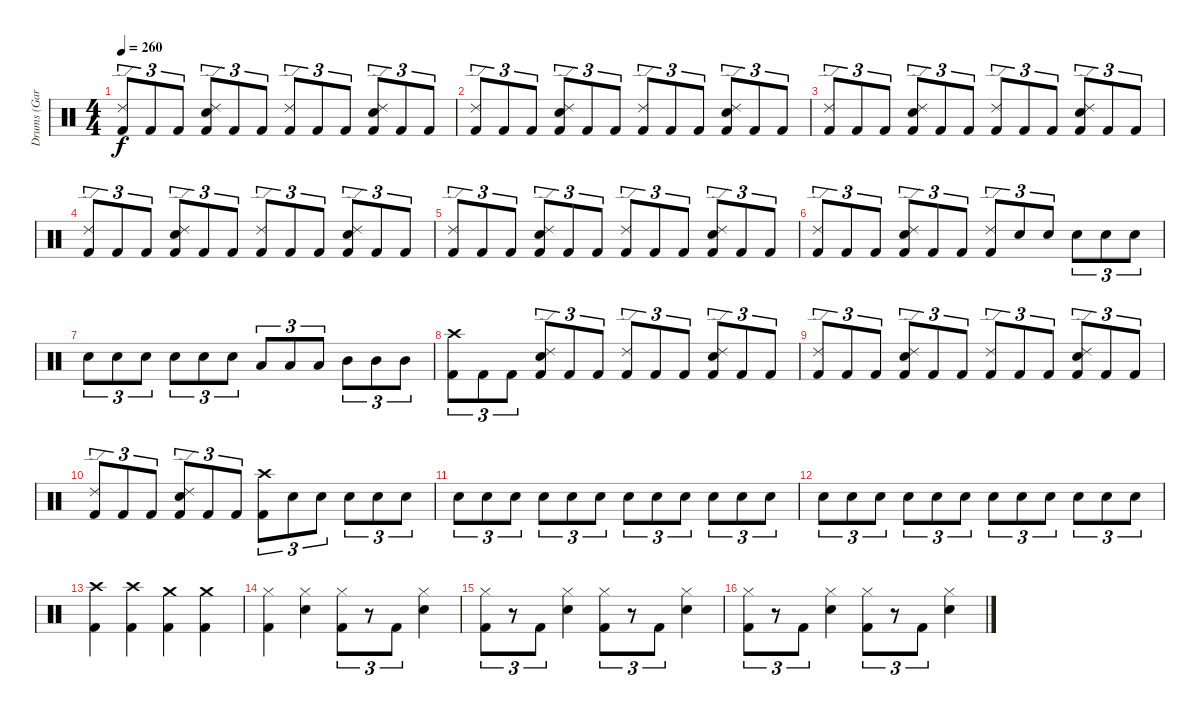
\track ("Drums (Gar Samuelson)" "Drums (Gar") {instrument percussion}
\staff {score}
\articulation defaults
\ts (4 4)
\tempo 260
\clef neutral
\ks c
("Ride (edge) 2" "Kick (hit) 2").8{tu (3 2) dy f} "Kick (hit) 2".8{tu (3 2)} "Kick (hit) 2".8{tu (3 2)} ("Ride (edge) 2" "Snare (hit) 2" "Kick (hit) 2").8{tu (3 2)} "Kick (hit) 2".8{tu (3 2)} "Kick (hit) 2".8{tu (3 2)} ("Ride (edge) 2" "Kick (hit) 2").8{tu (3 2)} "Kick (hit) 2".8{tu (3 2)} "Kick (hit) 2".8{tu (3 2)} ("Ride (edge) 2" "Snare (hit) 2" "Kick (hit) 2").8{tu (3 2)} "Kick (hit) 2".8{tu (3 2)} "Kick (hit) 2".8{tu (3 2)} |
("Ride (edge) 2" "Kick (hit) 2").8{tu (3 2)} "Kick (hit) 2".8{tu (3 2)} "Kick (hit) 2".8{tu (3 2)} ("Ride (edge) 2" "Snare (hit) 2" "Kick (hit) 2").8{tu (3 2)} "Kick (hit) 2".8{tu (3 2)} "Kick (hit) 2".8{tu (3 2)} ("Ride (edge) 2" "Kick (hit) 2").8{tu (3 2)} "Kick (hit) 2".8{tu (3 2)} "Kick (hit) 2".8{tu (3 2)} ("Ride (edge) 2" "Snare (hit) 2" "Kick (hit) 2").8{tu (3 2)} "Kick (hit) 2".8{tu (3 2)} "Kick (hit) 2".8{tu (3 2)} |
("Ride (edge) 2" "Kick (hit) 2").8{tu (3 2)} "Kick (hit) 2".8{tu (3 2)} "Kick (hit) 2".8{tu (3 2)} ("Ride (edge) 2" "Snare (hit) 2" "Kick (hit) 2").8{tu (3 2)} "Kick (hit) 2".8{tu (3 2)} "Kick (hit) 2".8{tu (3 2)} ("Ride (edge) 2" "Kick (hit) 2").8{tu (3 2)} "Kick (hit) 2".8{tu (3 2)} "Kick (hit) 2".8{tu (3 2)} ("Ride (edge) 2" "Snare (hit) 2" "Kick (hit) 2").8{tu (3 2)} "Kick (hit) 2".8{tu (3 2)} "Kick (hit) 2".8{tu (3 2)} |
("Ride (edge) 2" "Kick (hit) 2").8{tu (3 2)} "Kick (hit) 2".8{tu (3 2)} "Kick (hit) 2".8{tu (3 2)} ("Ride (edge) 2" "Snare (hit) 2" "Kick (hit) 2").8{tu (3 2)} "Kick (hit) 2".8{tu (3 2)} "Kick (hit) 2".8{tu (3 2)} ("Ride (edge) 2" "Kick (hit) 2").8{tu (3 2)} "Kick (hit) 2".8{tu (3 2)} "Kick (hit) 2".8{tu (3 2)} ("Ride (edge) 2" "Snare (hit) 2" "Kick (hit) 2").8{tu (3 2)} "Kick (hit) 2".8{tu (3 2)} "Kick (hit) 2".8{tu (3 2)} |
("Ride (edge) 2" "Kick (hit) 2").8{tu (3 2)} "Kick (hit) 2".8{tu (3 2)} "Kick (hit) 2".8{tu (3 2)} ("Ride (edge) 2" "Snare (hit) 2" "Kick (hit) 2").8{tu (3 2)} "Kick (hit) 2".8{tu (3 2)} "Kick (hit) 2".8{tu (3 2)} ("Ride (edge) 2" "Kick (hit) 2").8{tu (3 2)} "Kick (hit) 2".8{tu (3 2)} "Kick (hit) 2".8{tu (3 2)} ("Ride (edge) 2" "Snare (hit) 2" "Kick (hit) 2").8{tu (3 2)} "Kick (hit) 2".8{tu (3 2)} "Kick (hit) 2".8{tu (3 2)} |
("Ride (edge) 2" "Kick (hit) 2").8{tu (3 2)} "Kick (hit) 2".8{tu (3 2)} "Kick (hit) 2".8{tu (3 2)} ("Ride (edge) 2" "Snare (hit) 2" "Kick (hit) 2").8{tu (3 2)} "Kick (hit) 2".8{tu (3 2)} "Kick (hit) 2".8{tu (3 2)} ("Ride (edge) 2" "Kick (hit) 2").8{tu (3 2)} "Snare (hit) 2".8{tu (3 2)} "Snare (hit) 2".8{tu (3 2)} "Snare (hit) 2".8{tu (3 2)} "Snare (hit) 2".8{tu (3 2)} "Snare (hit) 2".8{tu (3 2)} |
"Snare (hit) 2".8{tu (3 2)} "Snare (hit) 2".8{tu (3 2)} "Snare (hit) 2".8{tu (3 2)} "Snare (hit) 2".8{tu (3 2)} "Snare (hit) 2".8{tu (3 2)} "Snare (hit) 2".8{tu (3 2)} "Low Tom (hit)".8{tu (3 2)} "Low Tom (hit)".8{tu (3 2)} "Low Tom (hit)".8{tu (3 2)} "Mid Tom (hit)".8{tu (3 2)} "Mid Tom (hit)".8{tu (3 2)} "Mid Tom (hit)".8{tu (3 2)} |
("Crash high (hit)" "Kick (hit) 2").8{tu (3 2)} "Kick (hit) 2".8{tu (3 2)} "Kick (hit) 2".8{tu (3 2)} ("Ride (edge) 2" "Snare (hit) 2" "Kick (hit) 2").8{tu (3 2)} "Kick (hit) 2".8{tu (3 2)} "Kick (hit) 2".8{tu (3 2)} ("Ride (edge) 2" "Kick (hit) 2").8{tu (3 2)} "Kick (hit) 2".8{tu (3 2)} "Kick (hit) 2".8{tu (3 2)} ("Ride (edge) 2" "Snare (hit) 2" "Kick (hit) 2").8{tu (3 2)} "Kick (hit) 2".8{tu (3 2)} "Kick (hit) 2".8{tu (3 2)} |
("Ride (edge) 2" "Kick (hit) 2").8{tu (3 2)} "Kick (hit) 2".8{tu (3 2)} "Kick (hit) 2".8{tu (3 2)} ("Ride (edge) 2" "Snare (hit) 2" "Kick (hit) 2").8{tu (3 2)} "Kick (hit) 2".8{tu (3 2)} "Kick (hit) 2".8{tu (3 2)} ("Ride (edge) 2" "Kick (hit) 2").8{tu (3 2)} "Kick (hit) 2".8{tu (3 2)} "Kick (hit) 2".8{tu (3 2)} ("Ride (edge) 2" "Snare (hit) 2" "Kick (hit) 2").8{tu (3 2)} "Kick (hit) 2".8{tu (3 2)} "Kick (hit) 2".8{tu (3 2)} |
("Ride (edge) 2" "Kick (hit) 2").8{tu (3 2)} "Kick (hit) 2".8{tu (3 2)} "Kick (hit) 2".8{tu (3 2)} ("Ride (edge) 2" "Snare (hit) 2" "Kick (hit) 2").8{tu (3 2)} "Kick (hit) 2".8{tu (3 2)} "Kick (hit) 2".8{tu (3 2)} ("Crash high (hit)" "Kick (hit) 2").8{tu (3 2)} "Snare (hit) 2".8{tu (3 2)} "Snare (hit) 2".8{tu (3 2)} "Snare (hit) 2".8{tu (3 2)} "Snare (hit) 2".8{tu (3 2)} "Snare (hit) 2".8{tu (3 2)} |
"Snare (hit) 2".8{tu (3 2)} "Snare (hit) 2".8{tu (3 2)} "Snare (hit) 2".8{tu (3 2)} "Snare (hit) 2".8{tu (3 2)} "Snare (hit) 2".8{tu (3 2)} "Snare (hit) 2".8{tu (3 2)} "Snare (hit) 2".8{tu (3 2)} "Snare (hit) 2".8{tu (3 2)} "Snare (hit) 2".8{tu (3 2)} "Snare (hit) 2".8{tu (3 2)} "Snare (hit) 2".8{tu (3 2)} "Snare (hit) 2".8{tu (3 2)} |
"Snare (hit) 2".8{tu (3 2)} "Snare (hit) 2".8{tu (3 2)} "Snare (hit) 2".8{tu (3 2)} "Snare (hit) 2".8{tu (3 2)} "Snare (hit) 2".8{tu (3 2)} "Snare (hit) 2".8{tu (3 2)} "Snare (hit) 2".8{tu (3 2)} "Snare (hit) 2".8{tu (3 2)} "Snare (hit) 2".8{tu (3 2)} "Snare (hit) 2".8{tu (3 2)} "Snare (hit) 2".8{tu (3 2)} "Snare (hit) 2".8{tu (3 2)} |
("Crash high (hit)" "Kick (hit) 2").4 ("Crash high (hit)" "Kick (hit) 2").4 ("Crash medium (hit)" "Kick (hit) 2").4 ("Crash medium (hit)" "Kick (hit) 2").4 |
("Hi-Hat (closed)" "Kick (hit) 2").4 ("Hi-Hat (closed)" "Snare (hit) 2").4 ("Hi-Hat (closed)" "Kick (hit) 2").8{tu (3 2)} r.8{tu (3 2)} "Kick (hit) 2".8{tu (3 2)} ("Hi-Hat (closed)" "Snare (hit) 2").4 |
("Hi-Hat (closed)" "Kick (hit) 2").8{tu (3 2)} r.8{tu (3 2)} "Kick (hit) 2".8{tu (3 2)} ("Hi-Hat (closed)" "Snare (hit) 2").4 ("Hi-Hat (closed)" "Kick (hit) 2").8{tu (3 2)} r.8{tu (3 2)} "Kick (hit) 2".8{tu (3 2)} ("Hi-Hat (closed)" "Snare (hit) 2").4 |
("Hi-Hat (closed)" "Kick (hit) 2").8{tu (3 2)} r.8{tu (3 2)} "Kick (hit) 2".8{tu (3 2)} ("Hi-Hat (closed)" "Snare (hit) 2").4 ("Hi-Hat (closed)" "Kick (hit) 2").8{tu (3 2)} r.8{tu (3 2)} "Kick (hit) 2".8{tu (3 2)} ("Hi-Hat (closed)" "Snare (hit) 2").4
